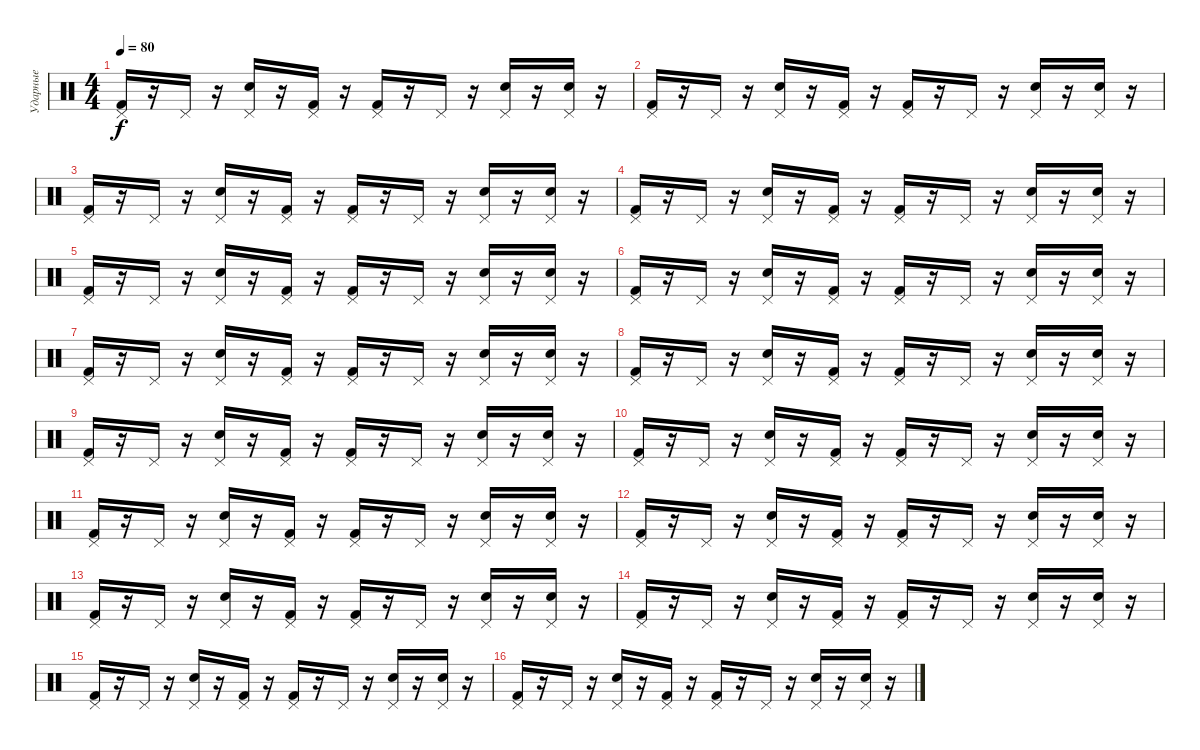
\track ("Ударные" "Ударные") {instrument percussion}
\staff {score}
\articulation defaults
\ts (4 4)
\tempo 80
\clef neutral
\ks c
("Pedal Hi-Hat (hit)" "Kick (hit) 2").16{dy f} r.16 "Pedal Hi-Hat (hit)".16 r.16 ("Pedal Hi-Hat (hit)" "Snare (hit) 2").16 r.16 ("Pedal Hi-Hat (hit)" "Kick (hit) 2").16 r.16 ("Pedal Hi-Hat (hit)" "Kick (hit) 2").16 r.16 "Pedal Hi-Hat (hit)".16 r.16 ("Pedal Hi-Hat (hit)" "Snare (hit) 2").16 r.16 ("Pedal Hi-Hat (hit)" "Snare (hit) 2").16 r.16 |
("Pedal Hi-Hat (hit)" "Kick (hit) 2").16 r.16 "Pedal Hi-Hat (hit)".16 r.16 ("Pedal Hi-Hat (hit)" "Snare (hit) 2").16 r.16 ("Pedal Hi-Hat (hit)" "Kick (hit) 2").16 r.16 ("Pedal Hi-Hat (hit)" "Kick (hit) 2").16 r.16 "Pedal Hi-Hat (hit)".16 r.16 ("Pedal Hi-Hat (hit)" "Snare (hit) 2").16 r.16 ("Pedal Hi-Hat (hit)" "Snare (hit) 2").16 r.16 |
("Pedal Hi-Hat (hit)" "Kick (hit) 2").16 r.16 "Pedal Hi-Hat (hit)".16 r.16 ("Pedal Hi-Hat (hit)" "Snare (hit) 2").16 r.16 ("Pedal Hi-Hat (hit)" "Kick (hit) 2").16 r.16 ("Pedal Hi-Hat (hit)" "Kick (hit) 2").16 r.16 "Pedal Hi-Hat (hit)".16 r.16 ("Pedal Hi-Hat (hit)" "Snare (hit) 2").16 r.16 ("Pedal Hi-Hat (hit)" "Snare (hit) 2").16 r.16 |
("Pedal Hi-Hat (hit)" "Kick (hit) 2").16 r.16 "Pedal Hi-Hat (hit)".16 r.16 ("Pedal Hi-Hat (hit)" "Snare (hit) 2").16 r.16 ("Pedal Hi-Hat (hit)" "Kick (hit) 2").16 r.16 ("Pedal Hi-Hat (hit)" "Kick (hit) 2").16 r.16 "Pedal Hi-Hat (hit)".16 r.16 ("Pedal Hi-Hat (hit)" "Snare (hit) 2").16 r.16 ("Pedal Hi-Hat (hit)" "Snare (hit) 2").16 r.16 |
("Pedal Hi-Hat (hit)" "Kick (hit) 2").16 r.16 "Pedal Hi-Hat (hit)".16 r.16 ("Pedal Hi-Hat (hit)" "Snare (hit) 2").16 r.16 ("Pedal Hi-Hat (hit)" "Kick (hit) 2").16 r.16 ("Pedal Hi-Hat (hit)" "Kick (hit) 2").16 r.16 "Pedal Hi-Hat (hit)".16 r.16 ("Pedal Hi-Hat (hit)" "Snare (hit) 2").16 r.16 ("Pedal Hi-Hat (hit)" "Snare (hit) 2").16 r.16 |
("Pedal Hi-Hat (hit)" "Kick (hit) 2").16 r.16 "Pedal Hi-Hat (hit)".16 r.16 ("Pedal Hi-Hat (hit)" "Snare (hit) 2").16 r.16 ("Pedal Hi-Hat (hit)" "Kick (hit) 2").16 r.16 ("Pedal Hi-Hat (hit)" "Kick (hit) 2").16 r.16 "Pedal Hi-Hat (hit)".16 r.16 ("Pedal Hi-Hat (hit)" "Snare (hit) 2").16 r.16 ("Pedal Hi-Hat (hit)" "Snare (hit) 2").16 r.16 |
("Pedal Hi-Hat (hit)" "Kick (hit) 2").16 r.16 "Pedal Hi-Hat (hit)".16 r.16 ("Pedal Hi-Hat (hit)" "Snare (hit) 2").16 r.16 ("Pedal Hi-Hat (hit)" "Kick (hit) 2").16 r.16 ("Pedal Hi-Hat (hit)" "Kick (hit) 2").16 r.16 "Pedal Hi-Hat (hit)".16 r.16 ("Pedal Hi-Hat (hit)" "Snare (hit) 2").16 r.16 ("Pedal Hi-Hat (hit)" "Snare (hit) 2").16 r.16 |
("Pedal Hi-Hat (hit)" "Kick (hit) 2").16 r.16 "Pedal Hi-Hat (hit)".16 r.16 ("Pedal Hi-Hat (hit)" "Snare (hit) 2").16 r.16 ("Pedal Hi-Hat (hit)" "Kick (hit) 2").16 r.16 ("Pedal Hi-Hat (hit)" "Kick (hit) 2").16 r.16 "Pedal Hi-Hat (hit)".16 r.16 ("Pedal Hi-Hat (hit)" "Snare (hit) 2").16 r.16 ("Pedal Hi-Hat (hit)" "Snare (hit) 2").16 r.16 |
("Pedal Hi-Hat (hit)" "Kick (hit) 2").16 r.16 "Pedal Hi-Hat (hit)".16 r.16 ("Pedal Hi-Hat (hit)" "Snare (hit) 2").16 r.16 ("Pedal Hi-Hat (hit)" "Kick (hit) 2").16 r.16 ("Pedal Hi-Hat (hit)" "Kick (hit) 2").16 r.16 "Pedal Hi-Hat (hit)".16 r.16 ("Pedal Hi-Hat (hit)" "Snare (hit) 2").16 r.16 ("Pedal Hi-Hat (hit)" "Snare (hit) 2").16 r.16 |
("Pedal Hi-Hat (hit)" "Kick (hit) 2").16 r.16 "Pedal Hi-Hat (hit)".16 r.16 ("Pedal Hi-Hat (hit)" "Snare (hit) 2").16 r.16 ("Pedal Hi-Hat (hit)" "Kick (hit) 2").16 r.16 ("Pedal Hi-Hat (hit)" "Kick (hit) 2").16 r.16 "Pedal Hi-Hat (hit)".16 r.16 ("Pedal Hi-Hat (hit)" "Snare (hit) 2").16 r.16 ("Pedal Hi-Hat (hit)" "Snare (hit) 2").16 r.16 |
("Pedal Hi-Hat (hit)" "Kick (hit) 2").16 r.16 "Pedal Hi-Hat (hit)".16 r.16 ("Pedal Hi-Hat (hit)" "Snare (hit) 2").16 r.16 ("Pedal Hi-Hat (hit)" "Kick (hit) 2").16 r.16 ("Pedal Hi-Hat (hit)" "Kick (hit) 2").16 r.16 "Pedal Hi-Hat (hit)".16 r.16 ("Pedal Hi-Hat (hit)" "Snare (hit) 2").16 r.16 ("Pedal Hi-Hat (hit)" "Snare (hit) 2").16 r.16 |
("Pedal Hi-Hat (hit)" "Kick (hit) 2").16 r.16 "Pedal Hi-Hat (hit)".16 r.16 ("Pedal Hi-Hat (hit)" "Snare (hit) 2").16 r.16 ("Pedal Hi-Hat (hit)" "Kick (hit) 2").16 r.16 ("Pedal Hi-Hat (hit)" "Kick (hit) 2").16 r.16 "Pedal Hi-Hat (hit)".16 r.16 ("Pedal Hi-Hat (hit)" "Snare (hit) 2").16 r.16 ("Pedal Hi-Hat (hit)" "Snare (hit) 2").16 r.16 |
("Pedal Hi-Hat (hit)" "Kick (hit) 2").16 r.16 "Pedal Hi-Hat (hit)".16 r.16 ("Pedal Hi-Hat (hit)" "Snare (hit) 2").16 r.16 ("Pedal Hi-Hat (hit)" "Kick (hit) 2").16 r.16 ("Pedal Hi-Hat (hit)" "Kick (hit) 2").16 r.16 "Pedal Hi-Hat (hit)".16 r.16 ("Pedal Hi-Hat (hit)" "Snare (hit) 2").16 r.16 ("Pedal Hi-Hat (hit)" "Snare (hit) 2").16 r.16 |
("Pedal Hi-Hat (hit)" "Kick (hit) 2").16 r.16 "Pedal Hi-Hat (hit)".16 r.16 ("Pedal Hi-Hat (hit)" "Snare (hit) 2").16 r.16 ("Pedal Hi-Hat (hit)" "Kick (hit) 2").16 r.16 ("Pedal Hi-Hat (hit)" "Kick (hit) 2").16 r.16 "Pedal Hi-Hat (hit)".16 r.16 ("Pedal Hi-Hat (hit)" "Snare (hit) 2").16 r.16 ("Pedal Hi-Hat (hit)" "Snare (hit) 2").16 r.16 |
("Pedal Hi-Hat (hit)" "Kick (hit) 2").16 r.16 "Pedal Hi-Hat (hit)".16 r.16 ("Pedal Hi-Hat (hit)" "Snare (hit) 2").16 r.16 ("Pedal Hi-Hat (hit)" "Kick (hit) 2").16 r.16 ("Pedal Hi-Hat (hit)" "Kick (hit) 2").16 r.16 "Pedal Hi-Hat (hit)".16 r.16 ("Pedal Hi-Hat (hit)" "Snare (hit) 2").16 r.16 ("Pedal Hi-Hat (hit)" "Snare (hit) 2").16 r.16 |
("Pedal Hi-Hat (hit)" "Kick (hit) 2").16 r.16 "Pedal Hi-Hat (hit)".16 r.16 ("Pedal Hi-Hat (hit)" "Snare (hit) 2").16 r.16 ("Pedal Hi-Hat (hit)" "Kick (hit) 2").16 r.16 ("Pedal Hi-Hat (hit)" "Kick (hit) 2").16 r.16 "Pedal Hi-Hat (hit)".16 r.16 ("Pedal Hi-Hat (hit)" "Snare (hit) 2").16 r.16 ("Pedal Hi-Hat (hit)" "Snare (hit) 2").16 r.16
